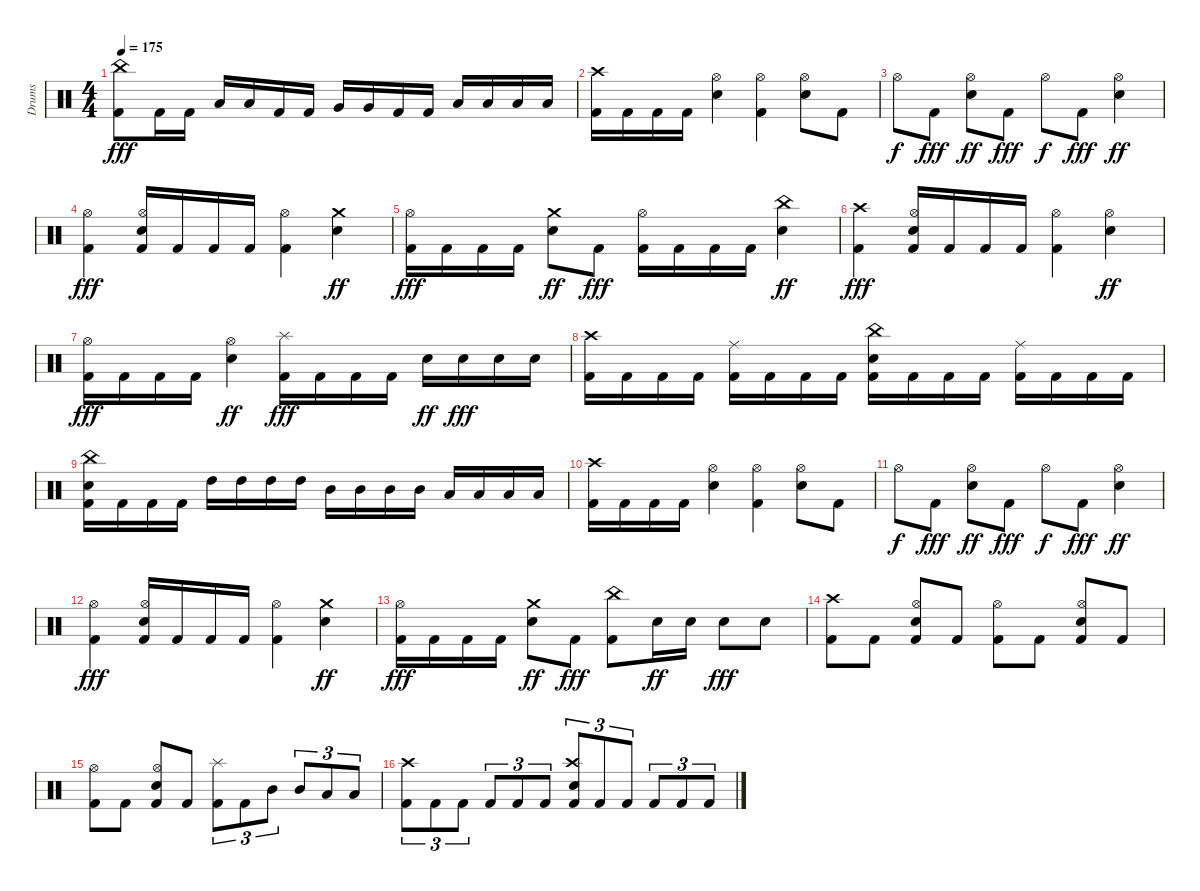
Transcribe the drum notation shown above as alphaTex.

\track ("Drums" "Drums") {instrument percussion}
\staff {score}
\articulation defaults
\ts (4 4)
\tempo 175
\clef neutral
\ks c
("China (hit)" "Kick (hit) 2").8{dy fff} "Kick (hit) 2".16 "Kick (hit) 2".16 "Low Tom (hit)".16 "Low Tom (hit)".16 "Kick (hit) 2".16 "Kick (hit) 2".16 "Very Low Tom (hit)".16 "Very Low Tom (hit)".16 "Kick (hit) 2".16 "Kick (hit) 2".16 "Low Floor Tom (hit)".16 "Low Floor Tom (hit)".16 "Low Floor Tom (hit)".16 "Low Floor Tom (hit)".16 |
("Crash high (hit)" "Kick (hit) 2").16 "Kick (hit) 2".16 "Kick (hit) 2".16 "Kick (hit) 2".16 ("Hi-Hat (open)" "Snare (hit) 2").4 ("Hi-Hat (open)" "Kick (hit) 2").4 ("Hi-Hat (open)" "Snare (hit) 2").8 "Kick (hit) 2".8 |
"Hi-Hat (open)".8{dy f} "Kick (hit) 2".8{dy fff} ("Hi-Hat (open)" "Snare (hit) 2").8{dy ff} "Kick (hit) 2".8{dy fff} "Hi-Hat (open)".8{dy f} "Kick (hit) 2".8{dy fff} ("Hi-Hat (open)" "Snare (hit) 2").4{dy ff} |
("Hi-Hat (open)" "Kick (hit) 2").4{dy fff} ("Hi-Hat (open)" "Snare (hit) 2" "Kick (hit) 2").16 "Kick (hit) 2".16 "Kick (hit) 2".16 "Kick (hit) 2".16 ("Hi-Hat (open)" "Kick (hit) 2").4 ("Crash medium (hit)" "Snare (hit) 2").4{dy ff} |
("Hi-Hat (open)" "Kick (hit) 2").16{dy fff} "Kick (hit) 2".16 "Kick (hit) 2".16 "Kick (hit) 2".16 ("Crash medium (hit)" "Snare (hit) 2").8{dy ff} "Kick (hit) 2".8{dy fff} ("Hi-Hat (open)" "Kick (hit) 2").16 "Kick (hit) 2".16 "Kick (hit) 2".16 "Kick (hit) 2".16 ("China (hit)" "Snare (hit) 2").4{dy ff} |
("Crash high (hit)" "Kick (hit) 2").4{dy fff} ("Hi-Hat (open)" "Snare (hit) 2" "Kick (hit) 2").16 "Kick (hit) 2".16 "Kick (hit) 2".16 "Kick (hit) 2".16 ("Hi-Hat (open)" "Kick (hit) 2").4 ("Hi-Hat (open)" "Snare (hit) 2").4{dy ff} |
("Hi-Hat (open)" "Kick (hit) 2").16{dy fff} "Kick (hit) 2".16 "Kick (hit) 2".16 "Kick (hit) 2".16 ("Hi-Hat (open)" "Snare (hit) 2").4{dy ff} ("Splash (hit)" "Kick (hit) 2").16{dy fff} "Kick (hit) 2".16 "Kick (hit) 2".16 "Kick (hit) 2".16 "Snare (hit) 2".16{dy ff} "Snare (hit) 2".16{dy fff} "Snare (hit) 2".16 "Snare (hit) 2".16 |
("Crash high (hit)" "Kick (hit) 2").16 "Kick (hit) 2".16 "Kick (hit) 2".16 "Kick (hit) 2".16 ("Ride (middle)" "Kick (hit) 2").16 "Kick (hit) 2".16 "Kick (hit) 2".16 "Kick (hit) 2".16 ("China (hit)" "Snare (hit) 2" "Kick (hit) 2").16 "Kick (hit) 2".16 "Kick (hit) 2".16 "Kick (hit) 2".16 ("Ride (middle)" "Kick (hit) 2").16 "Kick (hit) 2".16 "Kick (hit) 2".16 "Kick (hit) 2".16 |
("China (hit)" "Snare (hit) 2" "Kick (hit) 2").16 "Kick (hit) 2".16 "Kick (hit) 2".16 "Kick (hit) 2".16 "High Tom (hit)".16 "High Tom (hit)".16 "High Tom (hit)".16 "High Tom (hit)".16 "Mid Tom (hit)".16 "Mid Tom (hit)".16 "Mid Tom (hit)".16 "Mid Tom (hit)".16 "Low Tom (hit)".16 "Low Tom (hit)".16 "Low Tom (hit)".16 "Low Tom (hit)".16 |
("Crash high (hit)" "Kick (hit) 2").16 "Kick (hit) 2".16 "Kick (hit) 2".16 "Kick (hit) 2".16 ("Hi-Hat (open)" "Snare (hit) 2").4 ("Hi-Hat (open)" "Kick (hit) 2").4 ("Hi-Hat (open)" "Snare (hit) 2").8 "Kick (hit) 2".8 |
"Hi-Hat (open)".8{dy f} "Kick (hit) 2".8{dy fff} ("Hi-Hat (open)" "Snare (hit) 2").8{dy ff} "Kick (hit) 2".8{dy fff} "Hi-Hat (open)".8{dy f} "Kick (hit) 2".8{dy fff} ("Hi-Hat (open)" "Snare (hit) 2").4{dy ff} |
("Hi-Hat (open)" "Kick (hit) 2").4{dy fff} ("Hi-Hat (open)" "Snare (hit) 2" "Kick (hit) 2").16 "Kick (hit) 2".16 "Kick (hit) 2".16 "Kick (hit) 2".16 ("Hi-Hat (open)" "Kick (hit) 2").4 ("Crash medium (hit)" "Snare (hit) 2").4{dy ff} |
("Hi-Hat (open)" "Kick (hit) 2").16{dy fff} "Kick (hit) 2".16 "Kick (hit) 2".16 "Kick (hit) 2".16 ("Crash medium (hit)" "Snare (hit) 2").8{dy ff} "Kick (hit) 2".8{dy fff} ("China (hit)" "Kick (hit) 2").8 "Snare (hit) 2".16{dy ff} "Snare (hit) 2".16 "Snare (hit) 2".8{dy fff} "Snare (hit) 2".8 |
("Crash high (hit)" "Kick (hit) 2").8 "Kick (hit) 2".8 ("Hi-Hat (open)" "Snare (hit) 2" "Kick (hit) 2").8 "Kick (hit) 2".8 ("Hi-Hat (open)" "Kick (hit) 2").8 "Kick (hit) 2".8 ("Hi-Hat (open)" "Snare (hit) 2" "Kick (hit) 2").8 "Kick (hit) 2".8 |
("Hi-Hat (open)" "Kick (hit) 2").8 "Kick (hit) 2".8 ("Hi-Hat (open)" "Snare (hit) 2" "Kick (hit) 2").8 "Kick (hit) 2".8 ("Splash (hit)" "Kick (hit) 2").8{tu (3 2)} "Kick (hit) 2".8{tu (3 2)} "Mid Tom (hit)".8{tu (3 2)} "Mid Tom (hit)".8{tu (3 2)} "Low Tom (hit)".8{tu (3 2)} "Low Tom (hit)".8{tu (3 2)} |
("Crash high (hit)" "Kick (hit) 2").8{tu (3 2)} "Kick (hit) 2".8{tu (3 2)} "Kick (hit) 2".8{tu (3 2)} "Kick (hit) 2".8{tu (3 2)} "Kick (hit) 2".8{tu (3 2)} "Kick (hit) 2".8{tu (3 2)} ("Crash high (hit)" "Snare (hit) 2" "Kick (hit) 2").8{tu (3 2)} "Kick (hit) 2".8{tu (3 2)} "Kick (hit) 2".8{tu (3 2)} "Kick (hit) 2".8{tu (3 2)} "Kick (hit) 2".8{tu (3 2)} "Kick (hit) 2".8{tu (3 2)}
